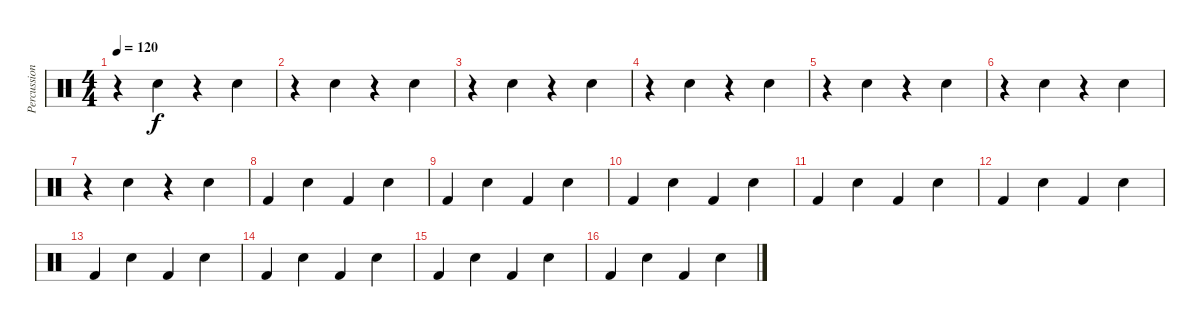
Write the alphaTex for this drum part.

\track ("Percussion" "Percussion") {instrument percussion}
\staff {score}
\articulation defaults
\ts (4 4)
\tempo 120
\clef neutral
\ks c
r.4{dy f} "Snare (hit) 2".4 r.4 "Snare (hit) 2".4 |
r.4 "Snare (hit) 2".4 r.4 "Snare (hit) 2".4 |
r.4 "Snare (hit) 2".4 r.4 "Snare (hit) 2".4 |
r.4 "Snare (hit) 2".4 r.4 "Snare (hit) 2".4 |
r.4 "Snare (hit) 2".4 r.4 "Snare (hit) 2".4 |
r.4 "Snare (hit) 2".4 r.4 "Snare (hit) 2".4 |
r.4 "Snare (hit) 2".4 r.4 "Snare (hit) 2".4 |
"Kick (hit) 2".4 "Snare (hit) 2".4 "Kick (hit) 2".4 "Snare (hit) 2".4 |
"Kick (hit) 2".4 "Snare (hit) 2".4 "Kick (hit) 2".4 "Snare (hit) 2".4 |
"Kick (hit) 2".4 "Snare (hit) 2".4 "Kick (hit) 2".4 "Snare (hit) 2".4 |
"Kick (hit) 2".4 "Snare (hit) 2".4 "Kick (hit) 2".4 "Snare (hit) 2".4 |
"Kick (hit) 2".4 "Snare (hit) 2".4 "Kick (hit) 2".4 "Snare (hit) 2".4 |
"Kick (hit) 2".4 "Snare (hit) 2".4 "Kick (hit) 2".4 "Snare (hit) 2".4 |
"Kick (hit) 2".4 "Snare (hit) 2".4 "Kick (hit) 2".4 "Snare (hit) 2".4 |
"Kick (hit) 2".4 "Snare (hit) 2".4 "Kick (hit) 2".4 "Snare (hit) 2".4 |
"Kick (hit) 2".4 "Snare (hit) 2".4 "Kick (hit) 2".4 "Snare (hit) 2".4
